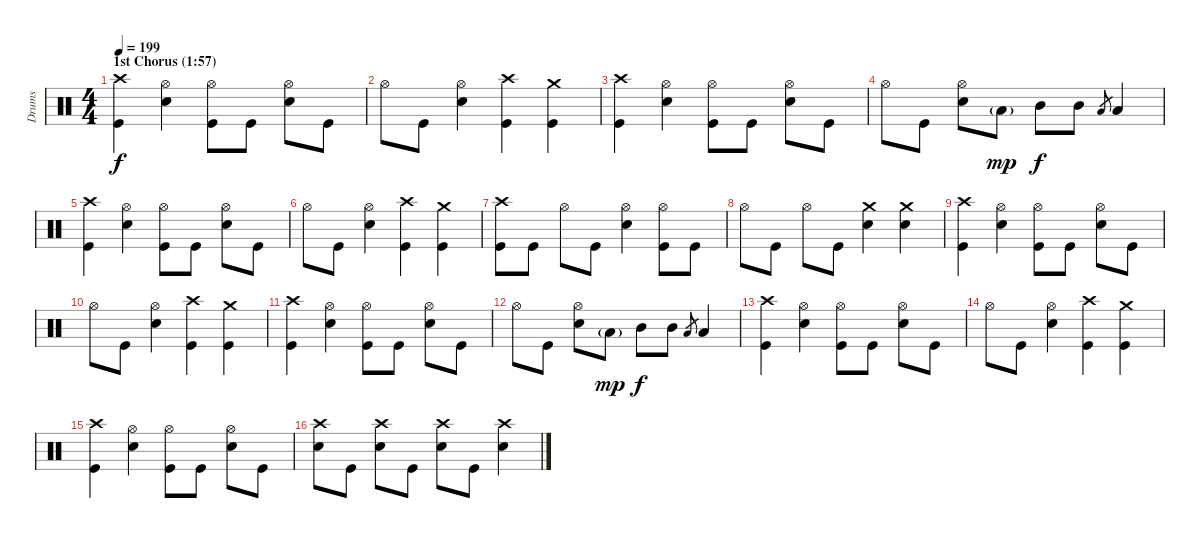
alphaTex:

\track ("Drums" "Drums") {instrument percussion}
\staff {score}
\articulation defaults
\ts (4 4)
\section ("" "1st Chorus (1:57)")
\tempo 199
\clef neutral
\ks c
("Crash high (hit)" "Kick (hit)").4{dy f} ("Hi-Hat (open)" "Snare (hit) 2").4 ("Hi-Hat (open)" "Kick (hit)").8 "Kick (hit)".8 ("Hi-Hat (open)" "Snare (hit) 2").8 "Kick (hit)".8 |
"Hi-Hat (open)".8 "Kick (hit)".8 ("Hi-Hat (open)" "Snare (hit) 2").4 ("Crash high (hit)" "Kick (hit)").4 ("Crash medium (hit)" "Kick (hit)").4 |
("Crash high (hit)" "Kick (hit)").4 ("Hi-Hat (open)" "Snare (hit) 2").4 ("Hi-Hat (open)" "Kick (hit)").8 "Kick (hit)".8 ("Hi-Hat (open)" "Snare (hit) 2").8 "Kick (hit)".8 |
"Hi-Hat (open)".8 "Kick (hit)".8 ("Hi-Hat (open)" "Snare (hit) 2").8 "Low Tom (hit)"{g}.8{dy mp} "Mid Tom (hit)".8{dy f} "Mid Tom (hit)".8 "Low Tom (hit)".8{gr} "Low Tom (hit)".4 |
("Crash high (hit)" "Kick (hit)").4 ("Hi-Hat (open)" "Snare (hit) 2").4 ("Hi-Hat (open)" "Kick (hit)").8 "Kick (hit)".8 ("Hi-Hat (open)" "Snare (hit) 2").8 "Kick (hit)".8 |
"Hi-Hat (open)".8 "Kick (hit)".8 ("Hi-Hat (open)" "Snare (hit) 2").4 ("Crash high (hit)" "Kick (hit)").4 ("Crash medium (hit)" "Kick (hit)").4 |
("Crash high (hit)" "Kick (hit)").8 "Kick (hit)".8 "Hi-Hat (open)".8 "Kick (hit)".8 ("Hi-Hat (open)" "Snare (hit) 2").4 ("Hi-Hat (open)" "Kick (hit)").8 "Kick (hit)".8 |
"Hi-Hat (open)".8 "Kick (hit)".8 "Hi-Hat (open)".8 "Kick (hit)".8 ("Crash medium (hit)" "Snare (hit) 2").4 ("Crash medium (hit)" "Snare (hit) 2").4 |
("Crash high (hit)" "Kick (hit)").4 ("Hi-Hat (open)" "Snare (hit) 2").4 ("Hi-Hat (open)" "Kick (hit)").8 "Kick (hit)".8 ("Hi-Hat (open)" "Snare (hit) 2").8 "Kick (hit)".8 |
"Hi-Hat (open)".8 "Kick (hit)".8 ("Hi-Hat (open)" "Snare (hit) 2").4 ("Crash high (hit)" "Kick (hit)").4 ("Crash medium (hit)" "Kick (hit)").4 |
("Crash high (hit)" "Kick (hit)").4 ("Hi-Hat (open)" "Snare (hit) 2").4 ("Hi-Hat (open)" "Kick (hit)").8 "Kick (hit)".8 ("Hi-Hat (open)" "Snare (hit) 2").8 "Kick (hit)".8 |
"Hi-Hat (open)".8 "Kick (hit)".8 ("Hi-Hat (open)" "Snare (hit) 2").8 "Low Tom (hit)"{g}.8{dy mp} "Mid Tom (hit)".8{dy f} "Mid Tom (hit)".8 "Low Tom (hit)".8{gr} "Low Tom (hit)".4 |
("Crash high (hit)" "Kick (hit)").4 ("Hi-Hat (open)" "Snare (hit) 2").4 ("Hi-Hat (open)" "Kick (hit)").8 "Kick (hit)".8 ("Hi-Hat (open)" "Snare (hit) 2").8 "Kick (hit)".8 |
"Hi-Hat (open)".8 "Kick (hit)".8 ("Hi-Hat (open)" "Snare (hit) 2").4 ("Crash high (hit)" "Kick (hit)").4 ("Crash medium (hit)" "Kick (hit)").4 |
("Crash high (hit)" "Kick (hit)").4 ("Hi-Hat (open)" "Snare (hit) 2").4 ("Hi-Hat (open)" "Kick (hit)").8 "Kick (hit)".8 ("Hi-Hat (open)" "Snare (hit) 2").8 "Kick (hit)".8 |
("Crash high (hit)" "Snare (hit) 2").8 "Kick (hit)".8 ("Crash high (hit)" "Snare (hit) 2").8 "Kick (hit)".8 ("Crash high (hit)" "Snare (hit) 2").8 "Kick (hit)".8 ("Crash high (hit)" "Snare (hit) 2").4
